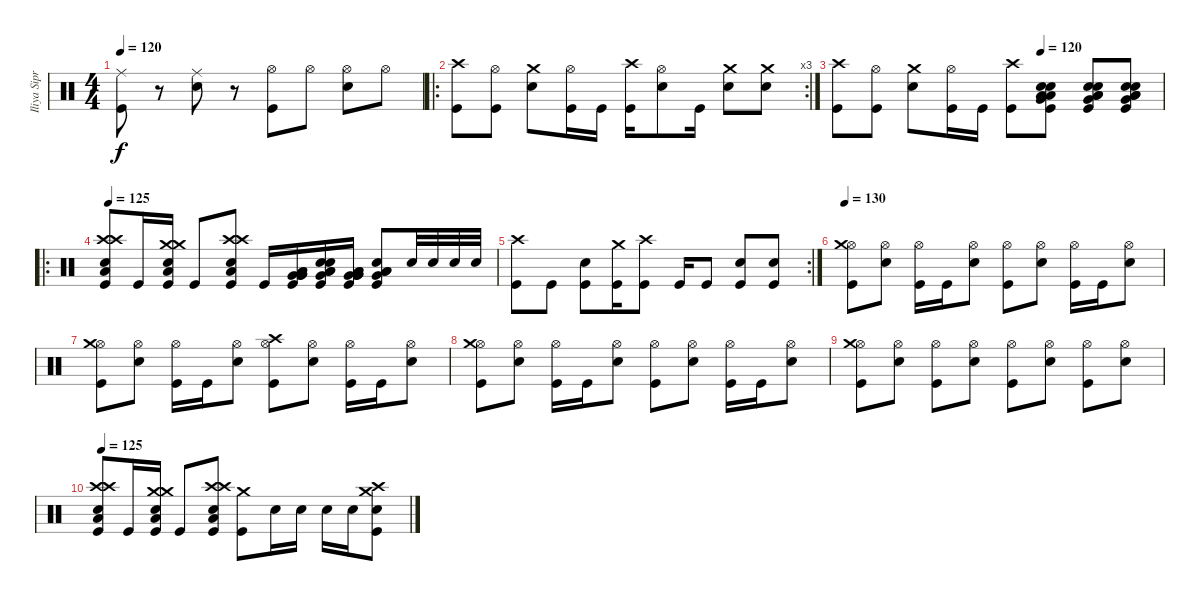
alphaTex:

\track ("Iliya Siprov (DRUMS)" "Iliya Sipr") {instrument percussion}
\staff {score}
\articulation defaults
\ts (4 4)
\tempo 120
\clef neutral
\ks c
("Ride (middle)" "Kick (hit)").8{dy f} r.8 ("Ride (middle)" "Electric Snare (hit)").8 r.8 ("Hi-Hat (open)" "Kick (hit)").8 "Hi-Hat (open)".8 ("Hi-Hat (open)" "Electric Snare (hit)").8 "Hi-Hat (open)".8 |
\ro
\rc 3
("Crash high (hit)" "Kick (hit)").8 ("Hi-Hat (open)" "Kick (hit)").8 ("Crash medium (hit)" "Electric Snare (hit)").8 ("Hi-Hat (open)" "Kick (hit)").16 "Kick (hit)".16 ("Crash high (hit)" "Kick (hit)").16 ("Hi-Hat (open)" "Electric Snare (hit)").8 "Kick (hit)".16 ("Crash medium (hit)" "Electric Snare (hit)").8 ("Crash medium (hit)" "Electric Snare (hit)").8 |
\tempo (120 0.625)
("Crash high (hit)" "Kick (hit)").8 ("Hi-Hat (open)" "Kick (hit)").8 ("Crash medium (hit)" "Electric Snare (hit)").8 ("Hi-Hat (open)" "Kick (hit)").16 "Kick (hit)".16 ("Crash high (hit)" "Kick (hit)").8 ("Electric Snare (hit)" "Very Low Tom (hit)" "Low Floor Tom (hit)" "Low Floor Tom (hit)" "Electric Snare (hit)" "Kick (hit)").8 ("Electric Snare (hit)" "Very Low Tom (hit)" "Low Floor Tom (hit)" "Low Floor Tom (hit)" "Electric Snare (hit)" "Kick (hit)").8 ("Electric Snare (hit)" "Very Low Tom (hit)" "Low Floor Tom (hit)" "Low Floor Tom (hit)" "Electric Snare (hit)" "Kick (hit)").8 |
\ro
\tempo 125
("Crash high (hit)" "Crash high (hit)" "Electric Snare (hit)" "Low Floor Tom (hit)" "Kick (hit)").8 "Kick (hit)".16 ("Crash medium (hit)" "Crash medium (hit)" "Electric Snare (hit)" "Low Floor Tom (hit)" "Kick (hit)").16 "Kick (hit)".8 ("Crash high (hit)" "Crash high (hit)" "Electric Snare (hit)" "Low Floor Tom (hit)" "Kick (hit)").8 "Kick (hit)".16 ("Very Low Tom (hit)" "Low Floor Tom (hit)" "Very Low Tom (hit)" "Low Floor Tom (hit)" "Very Low Tom (hit)" "Kick (hit)").16 ("Very Low Tom (hit)" "Electric Snare (hit)" "Electric Snare (hit)" "Low Floor Tom (hit)" "Low Floor Tom (hit)" "Kick (hit)").16 ("Very Low Tom (hit)" "Very Low Tom (hit)" "Very Low Tom (hit)" "Low Floor Tom (hit)" "Low Floor Tom (hit)" "Kick (hit)").16 ("Low Floor Tom (hit)" "Low Floor Tom (hit)" "Very Low Tom (hit)" "Electric Snare (hit)" "Kick (hit)").8 "Electric Snare (hit)".32 "Electric Snare (hit)".32 "Electric Snare (hit)".32 "Electric Snare (hit)".32 |
\rc 2
("Crash high (hit)" "Kick (hit)").8 "Kick (hit)".8 ("Electric Snare (hit)" "Kick (hit)").8 ("Crash medium (hit)" "Kick (hit)").16 ("Crash high (hit)" "Kick (hit)").8 "Kick (hit)".16 "Kick (hit)".8 ("Electric Snare (hit)" "Kick (hit)").8 ("Electric Snare (hit)" "Kick (hit)").8 |
\tempo 130
("Hi-Hat (open)" "Crash medium (hit)" "Kick (hit)").8 ("Hi-Hat (open)" "Electric Snare (hit)").8 ("Hi-Hat (open)" "Kick (hit)").16 "Kick (hit)".16 ("Hi-Hat (open)" "Electric Snare (hit)").8 ("Hi-Hat (open)" "Kick (hit)").8 ("Hi-Hat (open)" "Electric Snare (hit)").8 ("Hi-Hat (open)" "Kick (hit)").16 "Kick (hit)".16 ("Hi-Hat (open)" "Electric Snare (hit)").8 |
("Hi-Hat (open)" "Crash medium (hit)" "Kick (hit)").8 ("Hi-Hat (open)" "Electric Snare (hit)").8 ("Hi-Hat (open)" "Kick (hit)").16 "Kick (hit)".16 ("Hi-Hat (open)" "Electric Snare (hit)").8 ("Hi-Hat (open)" "Crash high (hit)" "Kick (hit)").8 ("Hi-Hat (open)" "Electric Snare (hit)").8 ("Hi-Hat (open)" "Kick (hit)").16 "Kick (hit)".16 ("Hi-Hat (open)" "Electric Snare (hit)").8 |
("Hi-Hat (open)" "Crash medium (hit)" "Kick (hit)").8 ("Hi-Hat (open)" "Electric Snare (hit)").8 ("Hi-Hat (open)" "Kick (hit)").16 "Kick (hit)".16 ("Hi-Hat (open)" "Electric Snare (hit)").8 ("Hi-Hat (open)" "Kick (hit)").8 ("Hi-Hat (open)" "Electric Snare (hit)").8 ("Hi-Hat (open)" "Kick (hit)").16 "Kick (hit)".16 ("Hi-Hat (open)" "Electric Snare (hit)").8 |
("Hi-Hat (open)" "Crash medium (hit)" "Kick (hit)").8 ("Hi-Hat (open)" "Electric Snare (hit)").8 ("Hi-Hat (open)" "Kick (hit)").8 ("Hi-Hat (open)" "Electric Snare (hit)").8 ("Hi-Hat (open)" "Kick (hit)").8 ("Hi-Hat (open)" "Electric Snare (hit)").8 ("Hi-Hat (open)" "Kick (hit)").8 ("Hi-Hat (open)" "Electric Snare (hit)").8 |
\tempo 125
("Crash high (hit)" "Crash high (hit)" "Electric Snare (hit)" "Low Floor Tom (hit)" "Kick (hit)").8 "Kick (hit)".16 ("Crash medium (hit)" "Crash medium (hit)" "Electric Snare (hit)" "Low Floor Tom (hit)" "Kick (hit)").16 "Kick (hit)".8 ("Crash high (hit)" "Crash high (hit)" "Electric Snare (hit)" "Low Floor Tom (hit)" "Kick (hit)").8 ("Crash medium (hit)" "Kick (hit)").8 "Electric Snare (hit)".16 "Electric Snare (hit)".16 "Electric Snare (hit)".16 "Electric Snare (hit)".16 ("Crash medium (hit)" "Crash high (hit)" "Electric Snare (hit)" "Kick (hit)").8
